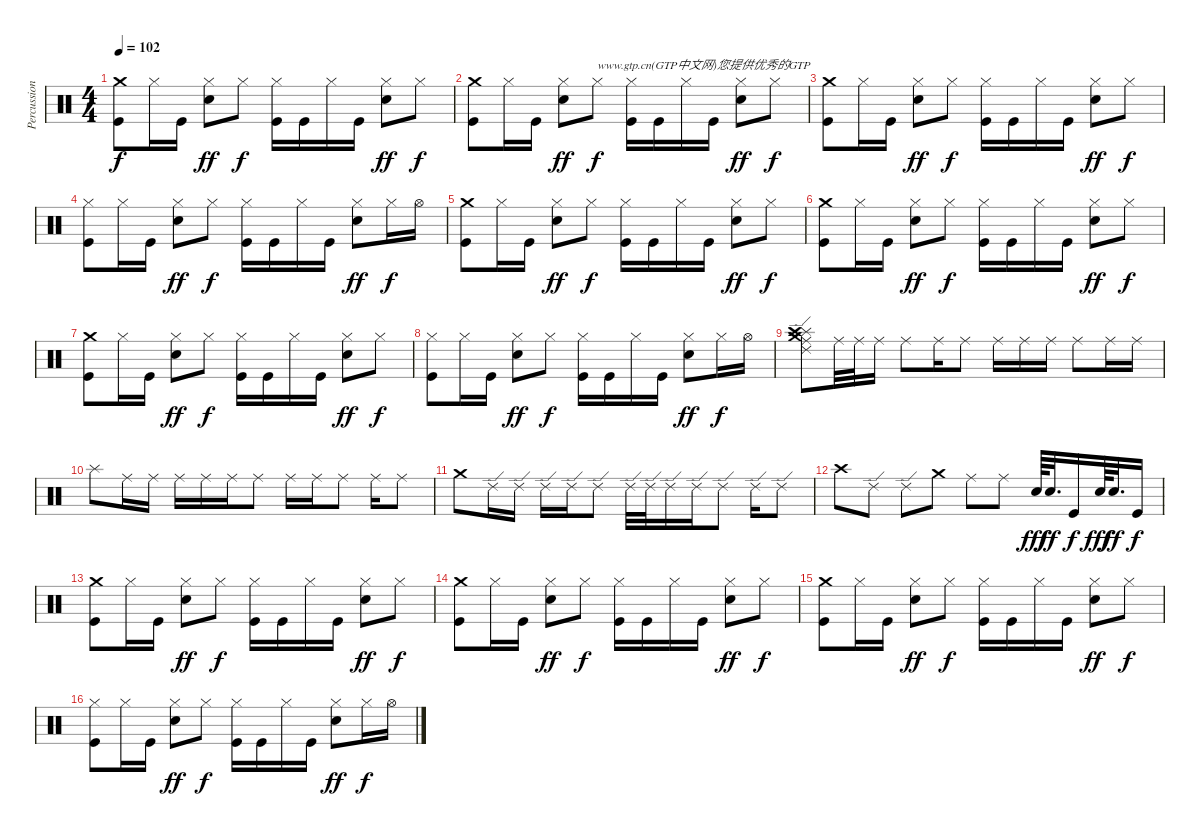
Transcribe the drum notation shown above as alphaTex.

\track ("Percussion" "Percussion") {instrument percussion}
\staff {score}
\articulation defaults
\ts (4 4)
\tempo 102
\clef neutral
\ks c
("Crash medium (hit)" "Kick (hit)").8{dy f} "Hi-Hat (closed)".16 "Kick (hit)".16 ("Hi-Hat (closed)" "Snare (hit) 2").8{dy ff} "Hi-Hat (closed)".8{dy f} ("Hi-Hat (closed)" "Kick (hit)").16 "Kick (hit)".16 "Hi-Hat (closed)".16 "Kick (hit)".16 ("Hi-Hat (closed)" "Snare (hit) 2").8{dy ff} "Hi-Hat (closed)".8{dy f} |
("Crash medium (hit)" "Kick (hit)").8 "Hi-Hat (closed)".16 "Kick (hit)".16 ("Hi-Hat (closed)" "Snare (hit) 2").8{dy ff} "Hi-Hat (closed)".8{txt "www.gtp.cn(GTP中文网)您提供优秀的GTP" dy f} ("Hi-Hat (closed)" "Kick (hit)").16 "Kick (hit)".16 "Hi-Hat (closed)".16 "Kick (hit)".16 ("Hi-Hat (closed)" "Snare (hit) 2").8{dy ff} "Hi-Hat (closed)".8{dy f} |
("Crash medium (hit)" "Kick (hit)").8 "Hi-Hat (closed)".16 "Kick (hit)".16 ("Hi-Hat (closed)" "Snare (hit) 2").8{dy ff} "Hi-Hat (closed)".8{dy f} ("Hi-Hat (closed)" "Kick (hit)").16 "Kick (hit)".16 "Hi-Hat (closed)".16 "Kick (hit)".16 ("Hi-Hat (closed)" "Snare (hit) 2").8{dy ff} "Hi-Hat (closed)".8{dy f} |
("Hi-Hat (closed)" "Kick (hit)").8 "Hi-Hat (closed)".16 "Kick (hit)".16 ("Hi-Hat (closed)" "Snare (hit) 2").8{dy ff} "Hi-Hat (closed)".8{dy f} ("Hi-Hat (closed)" "Kick (hit)").16 "Kick (hit)".16 "Hi-Hat (closed)".16 "Kick (hit)".16 ("Hi-Hat (closed)" "Snare (hit) 2").8{dy ff} "Hi-Hat (closed)".16{dy f} "Hi-Hat (open)".16 |
("Crash medium (hit)" "Kick (hit)").8 "Hi-Hat (closed)".16 "Kick (hit)".16 ("Hi-Hat (closed)" "Snare (hit) 2").8{dy ff} "Hi-Hat (closed)".8{dy f} ("Hi-Hat (closed)" "Kick (hit)").16 "Kick (hit)".16 "Hi-Hat (closed)".16 "Kick (hit)".16 ("Hi-Hat (closed)" "Snare (hit) 2").8{dy ff} "Hi-Hat (closed)".8{dy f} |
("Crash medium (hit)" "Kick (hit)").8 "Hi-Hat (closed)".16 "Kick (hit)".16 ("Hi-Hat (closed)" "Snare (hit) 2").8{dy ff} "Hi-Hat (closed)".8{dy f} ("Hi-Hat (closed)" "Kick (hit)").16 "Kick (hit)".16 "Hi-Hat (closed)".16 "Kick (hit)".16 ("Hi-Hat (closed)" "Snare (hit) 2").8{dy ff} "Hi-Hat (closed)".8{dy f} |
("Crash medium (hit)" "Kick (hit)").8 "Hi-Hat (closed)".16 "Kick (hit)".16 ("Hi-Hat (closed)" "Snare (hit) 2").8{dy ff} "Hi-Hat (closed)".8{dy f} ("Hi-Hat (closed)" "Kick (hit)").16 "Kick (hit)".16 "Hi-Hat (closed)".16 "Kick (hit)".16 ("Hi-Hat (closed)" "Snare (hit) 2").8{dy ff} "Hi-Hat (closed)".8{dy f} |
("Hi-Hat (closed)" "Kick (hit)").8 "Hi-Hat (closed)".16 "Kick (hit)".16 ("Hi-Hat (closed)" "Snare (hit) 2").8{dy ff} "Hi-Hat (closed)".8{dy f} ("Hi-Hat (closed)" "Kick (hit)").16 "Kick (hit)".16 "Hi-Hat (closed)".16 "Kick (hit)".16 ("Hi-Hat (closed)" "Snare (hit) 2").8{dy ff} "Hi-Hat (closed)".16{dy f} "Hi-Hat (open)".16 |
("Splash (hit)" "Ride (middle)" "Ride (edge) 2" "Crash medium (hit)" "Crash high (hit)").8 "Ride (middle)".32 "Ride (middle)".32 "Ride (middle)".16 "Ride (middle)".8 "Ride (middle)".16 "Ride (middle)".8 "Ride (middle)".16 "Ride (middle)".16 "Ride (middle)".16 "Ride (middle)".8 "Ride (middle)".16 "Ride (middle)".16 |
"Splash (hit)".8 "Ride (middle)".16 "Ride (middle)".16 "Ride (middle)".16 "Ride (middle)".16 "Ride (middle)".16 "Ride (middle)".8 "Ride (middle)".16 "Ride (middle)".16 "Ride (middle)".8 "Ride (middle)".16 "Ride (middle)".8 |
"Crash medium (hit)".8 "Ride (edge) 2".16 "Ride (edge) 2".16 "Ride (edge) 2".16 "Ride (edge) 2".16 "Ride (edge) 2".8 "Ride (edge) 2".32 "Ride (edge) 2".32 "Ride (edge) 2".16 "Ride (edge) 2".16 "Ride (edge) 2".8 "Ride (edge) 2".16 "Ride (edge) 2".8 |
"Crash high (hit)".8 "Ride (edge) 2".8 "Ride (edge) 2".8 "Crash medium (hit)".8 "Ride (middle)".8 "Ride (middle)".8 "Snare (hit) 2".64{dy fff} "Snare (hit) 2".32{d dy ff} "Kick (hit)".16{dy f} "Snare (hit) 2".64{dy fff} "Snare (hit) 2".32{d dy ff} "Kick (hit)".16{dy f} |
("Crash medium (hit)" "Kick (hit)").8 "Hi-Hat (closed)".16 "Kick (hit)".16 ("Hi-Hat (closed)" "Snare (hit) 2").8{dy ff} "Hi-Hat (closed)".8{dy f} ("Hi-Hat (closed)" "Kick (hit)").16 "Kick (hit)".16 "Hi-Hat (closed)".16 "Kick (hit)".16 ("Hi-Hat (closed)" "Snare (hit) 2").8{dy ff} "Hi-Hat (closed)".8{dy f} |
("Crash medium (hit)" "Kick (hit)").8 "Hi-Hat (closed)".16 "Kick (hit)".16 ("Hi-Hat (closed)" "Snare (hit) 2").8{dy ff} "Hi-Hat (closed)".8{dy f} ("Hi-Hat (closed)" "Kick (hit)").16 "Kick (hit)".16 "Hi-Hat (closed)".16 "Kick (hit)".16 ("Hi-Hat (closed)" "Snare (hit) 2").8{dy ff} "Hi-Hat (closed)".8{dy f} |
("Crash medium (hit)" "Kick (hit)").8 "Hi-Hat (closed)".16 "Kick (hit)".16 ("Hi-Hat (closed)" "Snare (hit) 2").8{dy ff} "Hi-Hat (closed)".8{dy f} ("Hi-Hat (closed)" "Kick (hit)").16 "Kick (hit)".16 "Hi-Hat (closed)".16 "Kick (hit)".16 ("Hi-Hat (closed)" "Snare (hit) 2").8{dy ff} "Hi-Hat (closed)".8{dy f} |
("Hi-Hat (closed)" "Kick (hit)").8 "Hi-Hat (closed)".16 "Kick (hit)".16 ("Hi-Hat (closed)" "Snare (hit) 2").8{dy ff} "Hi-Hat (closed)".8{dy f} ("Hi-Hat (closed)" "Kick (hit)").16 "Kick (hit)".16 "Hi-Hat (closed)".16 "Kick (hit)".16 ("Hi-Hat (closed)" "Snare (hit) 2").8{dy ff} "Hi-Hat (closed)".16{dy f} "Hi-Hat (open)".16
